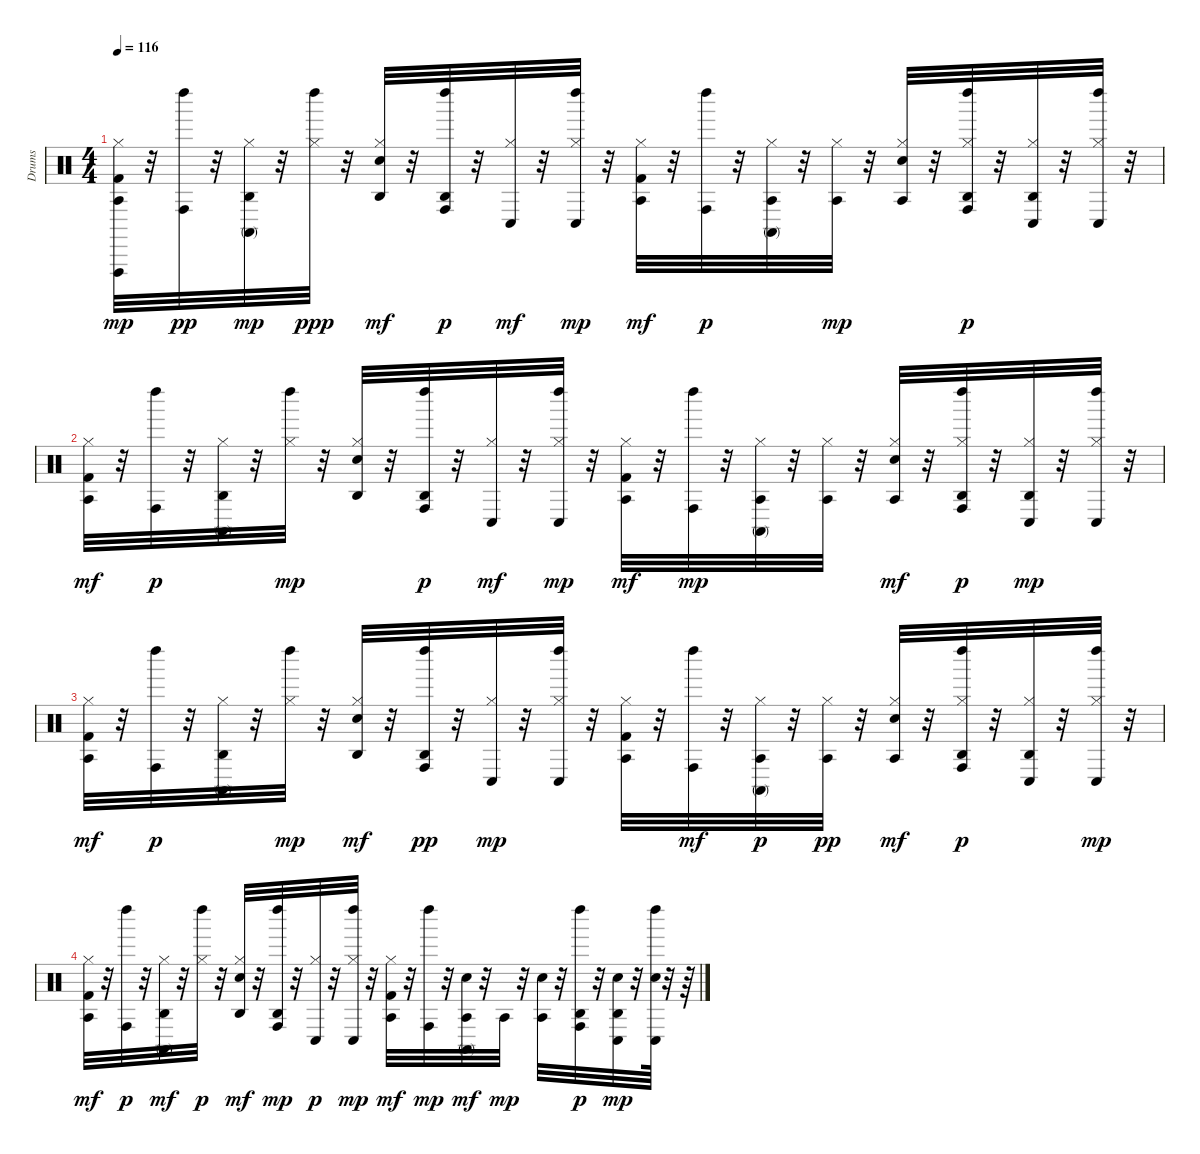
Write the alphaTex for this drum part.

\track ("Drums" "Drums") {instrument percussion}
\staff {score}
\articulation defaults
\ts (4 4)
\tempo 116
\clef neutral
\ks c
("Kick (hit) 2" "Hi-Hat (closed)" "Vibraslap (hit)" "Agogo tow (hit)").32{dy mp} r.32 ("Conga high (hit)" "Left Maraca (hit)").32{dy pp} r.32 ("Conga high (mute)" "Hi-Hat (closed)" "Agogo high (hit)").32{dy mp} r.32 ("Hi-Hat (closed)" "Left Maraca (hit)").32{dy ppp} r.32 ("Agogo high (hit)" "Hi-Hat (closed)" "Snare (hit) 2").32{dy mf} r.32 ("Left Maraca (hit)" "Agogo high (hit)" "Conga high (hit)").32{dy p} r.32 ("Conga low (hit)" "Hi-Hat (closed)").32{dy mf} r.32 ("Left Maraca (hit)" "Hi-Hat (closed)" "Conga low (hit)").32{dy mp} r.32 ("Kick (hit) 2" "Hi-Hat (closed)" "Agogo tow (hit)").32{dy mf} r.32 ("Conga high (hit)" "Left Maraca (hit)").32{dy p} r.32 ("Hi-Hat (closed)" "Agogo tow (hit)" "Conga high (mute)").32 r.32 ("Hi-Hat (closed)" "Agogo tow (hit)").32{dy mp} r.32 ("Hi-Hat (closed)" "Agogo tow (hit)" "Snare (hit) 2").32 r.32 ("Conga high (hit)" "Hi-Hat (closed)" "Agogo high (hit)" "Left Maraca (hit)").32{dy p} r.32 ("Conga low (hit)" "Hi-Hat (closed)" "Agogo high (hit)").32 r.32 ("Hi-Hat (closed)" "Conga low (hit)" "Left Maraca (hit)").32 r.32 |
("Hi-Hat (closed)" "Kick (hit) 2" "Agogo tow (hit)").32{dy mf} r.32 ("Conga high (hit)" "Left Maraca (hit)").32{dy p} r.32 ("Hi-Hat (closed)" "Agogo high (hit)" "Conga high (mute)").32 r.32 ("Left Maraca (hit)" "Hi-Hat (closed)").32{dy mp} r.32 ("Hi-Hat (closed)" "Agogo high (hit)" "Snare (hit) 2").32 r.32 ("Conga high (hit)" "Left Maraca (hit)" "Agogo high (hit)").32{dy p} r.32 ("Conga low (hit)" "Hi-Hat (closed)").32{dy mf} r.32 ("Conga low (hit)" "Hi-Hat (closed)" "Left Maraca (hit)").32{dy mp} r.32 ("Kick (hit) 2" "Hi-Hat (closed)" "Agogo tow (hit)").32{dy mf} r.32 ("Conga high (hit)" "Left Maraca (hit)").32{dy mp} r.32 ("Agogo tow (hit)" "Hi-Hat (closed)" "Conga high (mute)").32 r.32 ("Agogo tow (hit)" "Hi-Hat (closed)").32 r.32 ("Hi-Hat (closed)" "Snare (hit) 2" "Agogo tow (hit)").32{dy mf} r.32 ("Agogo high (hit)" "Hi-Hat (closed)" "Conga high (hit)" "Left Maraca (hit)").32{dy p} r.32 ("Hi-Hat (closed)" "Agogo high (hit)" "Conga low (hit)").32{dy mp} r.32 ("Hi-Hat (closed)" "Left Maraca (hit)" "Conga low (hit)").32 r.32 |
("Hi-Hat (closed)" "Agogo tow (hit)" "Kick (hit) 2").32{dy mf} r.32 ("Conga high (hit)" "Left Maraca (hit)").32{dy p} r.32 ("Hi-Hat (closed)" "Agogo high (hit)" "Conga high (mute)").32 r.32 ("Left Maraca (hit)" "Hi-Hat (closed)").32{dy mp} r.32 ("Snare (hit) 2" "Agogo high (hit)" "Hi-Hat (closed)").32{dy mf} r.32 ("Agogo high (hit)" "Conga high (hit)" "Left Maraca (hit)").32{dy pp} r.32 ("Hi-Hat (closed)" "Conga low (hit)").32{dy mp} r.32 ("Conga low (hit)" "Left Maraca (hit)" "Hi-Hat (closed)").32 r.32 ("Kick (hit) 2" "Hi-Hat (closed)" "Agogo tow (hit)").32 r.32 ("Left Maraca (hit)" "Conga high (hit)").32{dy mf} r.32 ("Hi-Hat (closed)" "Agogo tow (hit)" "Conga high (mute)").32{dy p} r.32 ("Hi-Hat (closed)" "Agogo tow (hit)").32{dy pp} r.32 ("Agogo tow (hit)" "Hi-Hat (closed)" "Snare (hit) 2").32{dy mf} r.32 ("Agogo high (hit)" "Conga high (hit)" "Hi-Hat (closed)" "Left Maraca (hit)").32{dy p} r.32 ("Conga low (hit)" "Hi-Hat (closed)" "Agogo high (hit)").32 r.32 ("Left Maraca (hit)" "Hi-Hat (closed)" "Conga low (hit)").32{dy mp} r.32 |
("Hi-Hat (closed)" "Agogo tow (hit)" "Kick (hit) 2").32{dy mf} r.32 ("Conga high (hit)" "Left Maraca (hit)").32{dy p} r.32 ("Agogo high (hit)" "Conga high (mute)" "Hi-Hat (closed)").32{dy mf} r.32 ("Hi-Hat (closed)" "Left Maraca (hit)").32{dy p} r.32 ("Hi-Hat (closed)" "Snare (hit) 2" "Agogo high (hit)").32{dy mf} r.32 ("Left Maraca (hit)" "Agogo high (hit)" "Conga high (hit)").32{dy mp} r.32 ("Hi-Hat (closed)" "Conga low (hit)").32{dy p} r.32 ("Hi-Hat (closed)" "Conga low (hit)" "Left Maraca (hit)").32{dy mp} r.32 ("Agogo tow (hit)" "Kick (hit) 2" "Hi-Hat (closed)").32{dy mf} r.32 ("Left Maraca (hit)" "Conga high (hit)").32{dy mp} r.32 ("Snare (hit) 2" "Conga high (mute)" "Agogo tow (hit)").32{dy mf} r.32 "Agogo tow (hit)".32{dy mp} r.32 ("Agogo tow (hit)" "Snare (hit) 2").32 r.32 ("Left Maraca (hit)" "Agogo high (hit)" "Conga high (hit)").32{dy p} r.32 ("Snare (hit) 2" "Agogo high (hit)" "Conga low (hit)").32{dy mp} r.32 ("Snare (hit) 2" "Conga low (hit)" "Left Maraca (hit)").64 r.32 r.64
